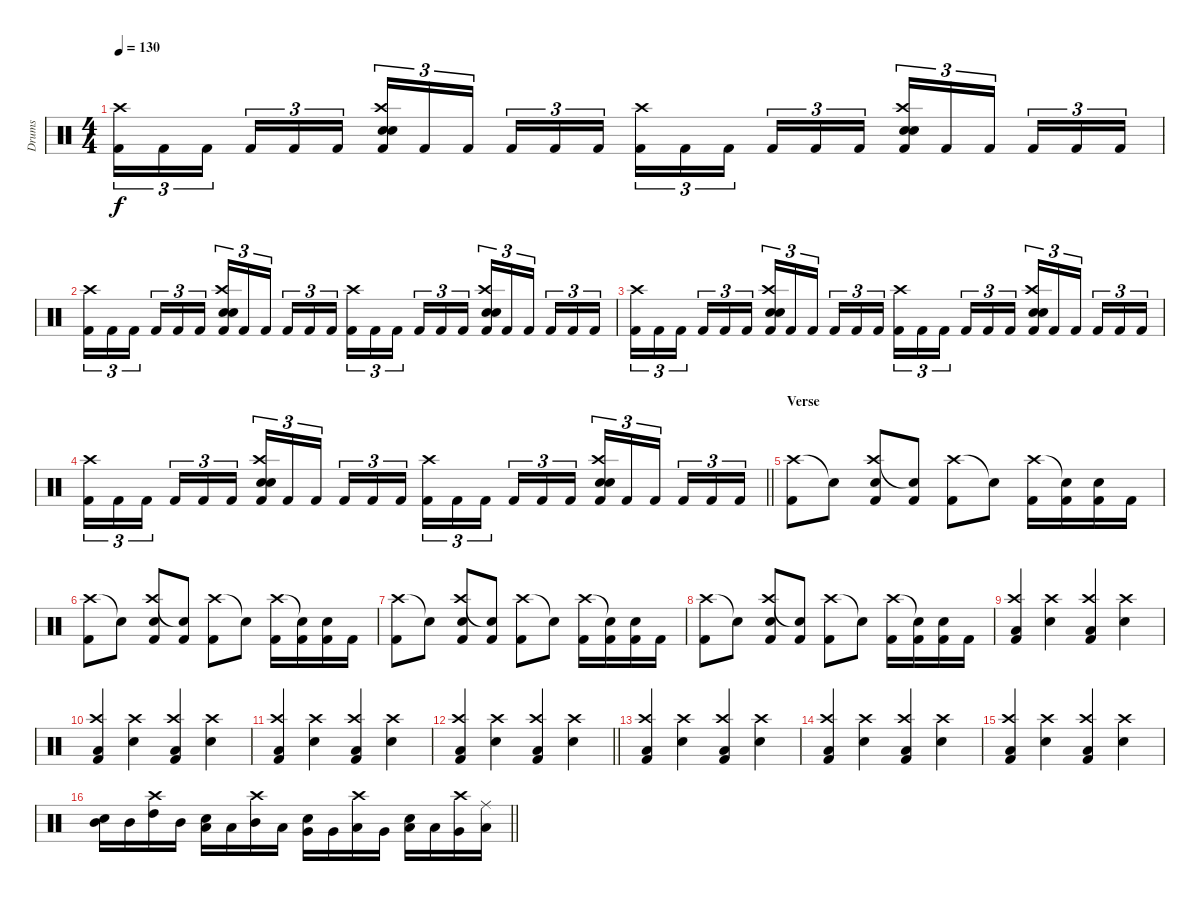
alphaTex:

\track ("Drums" "Drums") {instrument percussion}
\staff {score}
\articulation defaults
\ts (4 4)
\tempo 130
\clef neutral
\ks c
("Kick (hit) 2" "Crash high (hit)").16{tu (3 2) dy f} "Kick (hit) 2".16{tu (3 2)} "Kick (hit) 2".16{tu (3 2) beam splitsecondary} "Kick (hit) 2".16{tu (3 2)} "Kick (hit) 2".16{tu (3 2)} "Kick (hit) 2".16{tu (3 2)} ("Kick (hit) 2" "Electric Snare (hit)" "Crash high (hit)" "Electric Snare (hit)").16{tu (3 2)} "Kick (hit) 2".16{tu (3 2)} "Kick (hit) 2".16{tu (3 2) beam splitsecondary} "Kick (hit) 2".16{tu (3 2)} "Kick (hit) 2".16{tu (3 2)} "Kick (hit) 2".16{tu (3 2)} ("Kick (hit) 2" "Crash high (hit)").16{tu (3 2)} "Kick (hit) 2".16{tu (3 2)} "Kick (hit) 2".16{tu (3 2) beam splitsecondary} "Kick (hit) 2".16{tu (3 2)} "Kick (hit) 2".16{tu (3 2)} "Kick (hit) 2".16{tu (3 2)} ("Kick (hit) 2" "Electric Snare (hit)" "Crash high (hit)" "Electric Snare (hit)").16{tu (3 2)} "Kick (hit) 2".16{tu (3 2)} "Kick (hit) 2".16{tu (3 2) beam splitsecondary} "Kick (hit) 2".16{tu (3 2)} "Kick (hit) 2".16{tu (3 2)} "Kick (hit) 2".16{tu (3 2)} |
("Kick (hit) 2" "Crash high (hit)").16{tu (3 2)} "Kick (hit) 2".16{tu (3 2)} "Kick (hit) 2".16{tu (3 2) beam splitsecondary} "Kick (hit) 2".16{tu (3 2)} "Kick (hit) 2".16{tu (3 2)} "Kick (hit) 2".16{tu (3 2)} ("Kick (hit) 2" "Electric Snare (hit)" "Crash high (hit)" "Electric Snare (hit)").16{tu (3 2)} "Kick (hit) 2".16{tu (3 2)} "Kick (hit) 2".16{tu (3 2) beam splitsecondary} "Kick (hit) 2".16{tu (3 2)} "Kick (hit) 2".16{tu (3 2)} "Kick (hit) 2".16{tu (3 2)} ("Kick (hit) 2" "Crash high (hit)").16{tu (3 2)} "Kick (hit) 2".16{tu (3 2)} "Kick (hit) 2".16{tu (3 2) beam splitsecondary} "Kick (hit) 2".16{tu (3 2)} "Kick (hit) 2".16{tu (3 2)} "Kick (hit) 2".16{tu (3 2)} ("Kick (hit) 2" "Electric Snare (hit)" "Crash high (hit)" "Electric Snare (hit)").16{tu (3 2)} "Kick (hit) 2".16{tu (3 2)} "Kick (hit) 2".16{tu (3 2) beam splitsecondary} "Kick (hit) 2".16{tu (3 2)} "Kick (hit) 2".16{tu (3 2)} "Kick (hit) 2".16{tu (3 2)} |
("Kick (hit) 2" "Crash high (hit)").16{tu (3 2)} "Kick (hit) 2".16{tu (3 2)} "Kick (hit) 2".16{tu (3 2) beam splitsecondary} "Kick (hit) 2".16{tu (3 2)} "Kick (hit) 2".16{tu (3 2)} "Kick (hit) 2".16{tu (3 2)} ("Kick (hit) 2" "Electric Snare (hit)" "Crash high (hit)" "Electric Snare (hit)").16{tu (3 2)} "Kick (hit) 2".16{tu (3 2)} "Kick (hit) 2".16{tu (3 2) beam splitsecondary} "Kick (hit) 2".16{tu (3 2)} "Kick (hit) 2".16{tu (3 2)} "Kick (hit) 2".16{tu (3 2)} ("Kick (hit) 2" "Crash high (hit)").16{tu (3 2)} "Kick (hit) 2".16{tu (3 2)} "Kick (hit) 2".16{tu (3 2) beam splitsecondary} "Kick (hit) 2".16{tu (3 2)} "Kick (hit) 2".16{tu (3 2)} "Kick (hit) 2".16{tu (3 2)} ("Kick (hit) 2" "Electric Snare (hit)" "Crash high (hit)" "Electric Snare (hit)").16{tu (3 2)} "Kick (hit) 2".16{tu (3 2)} "Kick (hit) 2".16{tu (3 2) beam splitsecondary} "Kick (hit) 2".16{tu (3 2)} "Kick (hit) 2".16{tu (3 2)} "Kick (hit) 2".16{tu (3 2)} |
\barLineRight lightlight
("Kick (hit) 2" "Crash high (hit)").16{tu (3 2)} "Kick (hit) 2".16{tu (3 2)} "Kick (hit) 2".16{tu (3 2) beam splitsecondary} "Kick (hit) 2".16{tu (3 2)} "Kick (hit) 2".16{tu (3 2)} "Kick (hit) 2".16{tu (3 2)} ("Kick (hit) 2" "Electric Snare (hit)" "Crash high (hit)" "Electric Snare (hit)").16{tu (3 2)} "Kick (hit) 2".16{tu (3 2)} "Kick (hit) 2".16{tu (3 2) beam splitsecondary} "Kick (hit) 2".16{tu (3 2)} "Kick (hit) 2".16{tu (3 2)} "Kick (hit) 2".16{tu (3 2)} ("Kick (hit) 2" "Crash high (hit)").16{tu (3 2)} "Kick (hit) 2".16{tu (3 2)} "Kick (hit) 2".16{tu (3 2) beam splitsecondary} "Kick (hit) 2".16{tu (3 2)} "Kick (hit) 2".16{tu (3 2)} "Kick (hit) 2".16{tu (3 2)} ("Kick (hit) 2" "Electric Snare (hit)" "Crash high (hit)" "Electric Snare (hit)").16{tu (3 2)} "Kick (hit) 2".16{tu (3 2)} "Kick (hit) 2".16{tu (3 2) beam splitsecondary} "Kick (hit) 2".16{tu (3 2)} "Kick (hit) 2".16{tu (3 2)} "Kick (hit) 2".16{tu (3 2)} |
\section ("" "Verse")
("Crash high (hit)" "Kick (hit) 2").8 "Snare (hit)"{t}.8 ("Crash high (hit)" "Snare (hit) 2" "Kick (hit) 2").8 ("Snare (hit)"{t} "Kick (hit) 2").8 ("Crash high (hit)" "Kick (hit) 2").8 "Snare (hit)"{t}.8 ("Crash high (hit)" "Kick (hit) 2").16 ("Snare (hit)"{t} "Kick (hit) 2").16 ("Snare (hit) 2" "Kick (hit) 2").16 "Kick (hit) 2".16 |
("Crash high (hit)" "Kick (hit) 2").8 "Snare (hit)"{t}.8 ("Crash high (hit)" "Snare (hit) 2" "Kick (hit) 2").8 ("Snare (hit)"{t} "Kick (hit) 2").8 ("Crash high (hit)" "Kick (hit) 2").8 "Snare (hit)"{t}.8 ("Crash high (hit)" "Kick (hit) 2").16 ("Snare (hit)"{t} "Kick (hit) 2").16 ("Snare (hit) 2" "Kick (hit) 2").16 "Kick (hit) 2".16 |
("Crash high (hit)" "Kick (hit) 2").8 "Snare (hit)"{t}.8 ("Crash high (hit)" "Snare (hit) 2" "Kick (hit) 2").8 ("Snare (hit)"{t} "Kick (hit) 2").8 ("Crash high (hit)" "Kick (hit) 2").8 "Snare (hit)"{t}.8 ("Crash high (hit)" "Kick (hit) 2").16 ("Snare (hit)"{t} "Kick (hit) 2").16 ("Snare (hit) 2" "Kick (hit) 2").16 "Kick (hit) 2".16 |
("Crash high (hit)" "Kick (hit) 2").8 "Snare (hit)"{t}.8 ("Crash high (hit)" "Snare (hit) 2" "Kick (hit) 2").8 ("Snare (hit)"{t} "Kick (hit) 2").8 ("Crash high (hit)" "Kick (hit) 2").8 "Snare (hit)"{t}.8 ("Crash high (hit)" "Kick (hit) 2").16 ("Snare (hit)"{t} "Kick (hit) 2").16 ("Snare (hit) 2" "Kick (hit) 2").16 "Kick (hit) 2".16 |
("Crash high (hit)" "Low Floor Tom (hit)" "Kick (hit) 2").4 ("Crash high (hit)" "Snare (hit) 2").4 ("Crash high (hit)" "Low Floor Tom (hit)" "Kick (hit) 2").4 ("Crash high (hit)" "Snare (hit) 2").4 |
("Crash high (hit)" "Low Floor Tom (hit)" "Kick (hit) 2").4 ("Crash high (hit)" "Snare (hit) 2").4 ("Crash high (hit)" "Low Floor Tom (hit)" "Kick (hit) 2").4 ("Crash high (hit)" "Snare (hit) 2").4 |
("Crash high (hit)" "Low Floor Tom (hit)" "Kick (hit) 2").4 ("Crash high (hit)" "Snare (hit) 2").4 ("Crash high (hit)" "Low Floor Tom (hit)" "Kick (hit) 2").4 ("Crash high (hit)" "Snare (hit) 2").4 |
\barLineRight lightlight
("Crash high (hit)" "Low Floor Tom (hit)" "Kick (hit) 2").4 ("Crash high (hit)" "Snare (hit) 2").4 ("Crash high (hit)" "Low Floor Tom (hit)" "Kick (hit) 2").4 ("Crash high (hit)" "Snare (hit) 2").4 |
("Crash high (hit)" "Low Floor Tom (hit)" "Kick (hit) 2").4 ("Crash high (hit)" "Snare (hit) 2").4 ("Crash high (hit)" "Low Floor Tom (hit)" "Kick (hit) 2").4 ("Crash high (hit)" "Snare (hit) 2").4 |
("Crash high (hit)" "Low Floor Tom (hit)" "Kick (hit) 2").4 ("Crash high (hit)" "Snare (hit) 2").4 ("Crash high (hit)" "Low Floor Tom (hit)" "Kick (hit) 2").4 ("Crash high (hit)" "Snare (hit) 2").4 |
("Crash high (hit)" "Low Floor Tom (hit)" "Kick (hit) 2").4 ("Crash high (hit)" "Snare (hit) 2").4 ("Crash high (hit)" "Low Floor Tom (hit)" "Kick (hit) 2").4 ("Crash high (hit)" "Snare (hit) 2").4 |
\barLineRight lightlight
("Snare (hit) 2" "Mid Tom (hit)").16 "Mid Tom (hit)".16 ("Crash high (hit)" "High Tom (hit)").16 "Mid Tom (hit)".16 ("Snare (hit) 2" "Low Tom (hit)").16 "Low Tom (hit)".16 ("Crash high (hit)" "Mid Tom (hit)").16 "Low Tom (hit)".16 ("Snare (hit) 2" "Very Low Tom (hit)").16 "Very Low Tom (hit)".16 ("Crash high (hit)" "Low Tom (hit)").16 "Very Low Tom (hit)".16 ("Snare (hit) 2" "Low Floor Tom (hit)").16 "Low Floor Tom (hit)".16 ("Crash high (hit)" "Very Low Tom (hit)").16 ("Ride (middle)" "Low Floor Tom (hit)").16
